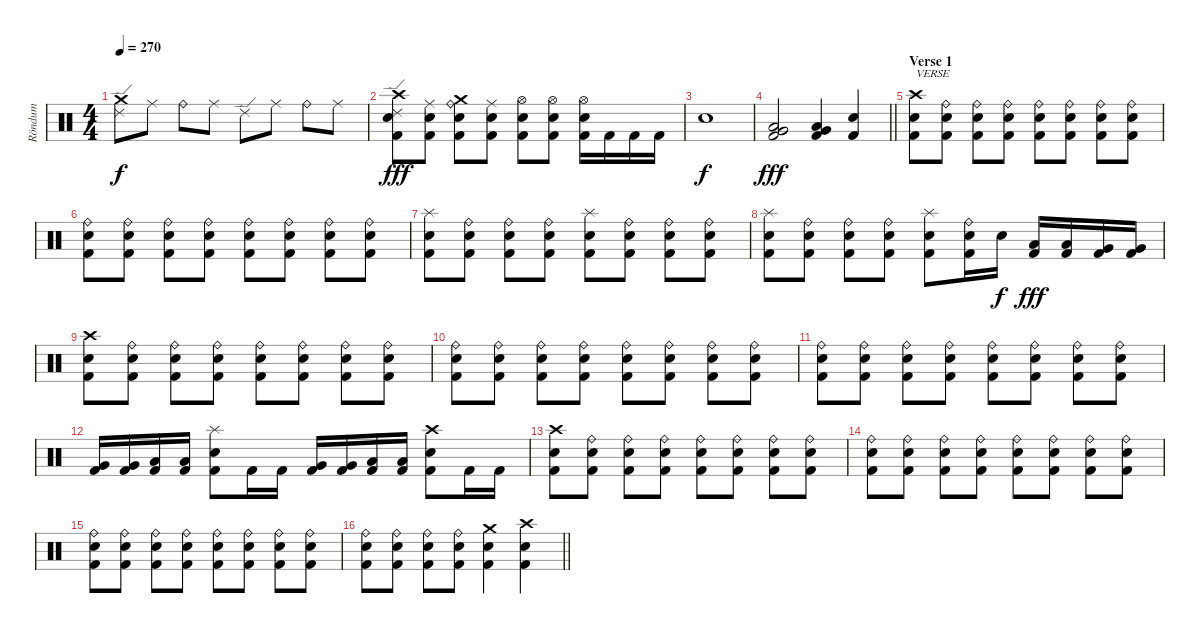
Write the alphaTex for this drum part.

\track ("Röndum" "Röndum") {instrument percussion}
\staff {score}
\articulation defaults
\ts (4 4)
\tempo 270
\clef neutral
\ks c
("Crash medium (hit)" "Ride (edge) 2").8{dy f} "Ride (middle)".8 "Ride (bell)".8 "Ride (middle)".8 "Ride (edge) 2".8 "Ride (middle)".8 "Ride (bell)".8 "Ride (middle)".8 |
("Crash high (hit)" "Ride (edge) 2" "Snare (hit) 2" "Kick (hit) 2").8{dy fff} ("Ride (middle)" "Snare (hit) 2" "Kick (hit) 2").8 ("Crash medium (hit)" "Ride (bell)" "Snare (hit) 2" "Kick (hit) 2").8 ("Ride (middle)" "Snare (hit) 2" "Kick (hit) 2").8 ("Hi-Hat (open)" "Snare (hit) 2" "Kick (hit) 2").8 ("Hi-Hat (open)" "Snare (hit) 2" "Kick (hit) 2").8 ("Hi-Hat (open)" "Snare (hit) 2" "Kick (hit) 2").16 "Kick (hit) 2".16 "Kick (hit) 2".16 "Kick (hit) 2".16 |
"Snare (hit) 2".1{dy f} |
\barLineRight lightlight
("Low Floor Tom (hit)" "Very Low Tom (hit)" "Kick (hit) 2").2{dy fff} ("Very Low Tom (hit)" "Low Tom (hit)" "Kick (hit) 2").4 ("Snare (hit) 2" "Kick (hit) 2").4 |
\section ("" "Verse 1")
("Crash high (hit)" "Snare (hit) 2" "Kick (hit) 2").8{txt "VERSE"} ("Ride (bell)" "Snare (hit) 2" "Kick (hit) 2").8 ("Ride (bell)" "Snare (hit) 2" "Kick (hit) 2").8 ("Ride (bell)" "Snare (hit) 2" "Kick (hit) 2").8 ("Ride (bell)" "Snare (hit) 2" "Kick (hit) 2").8 ("Ride (bell)" "Snare (hit) 2" "Kick (hit) 2").8 ("Ride (bell)" "Snare (hit) 2" "Kick (hit) 2").8 ("Ride (bell)" "Snare (hit) 2" "Kick (hit) 2").8 |
("Ride (bell)" "Snare (hit) 2" "Kick (hit) 2").8 ("Ride (bell)" "Snare (hit) 2" "Kick (hit) 2").8 ("Ride (bell)" "Snare (hit) 2" "Kick (hit) 2").8 ("Ride (bell)" "Snare (hit) 2" "Kick (hit) 2").8 ("Ride (bell)" "Snare (hit) 2" "Kick (hit) 2").8 ("Ride (bell)" "Snare (hit) 2" "Kick (hit) 2").8 ("Ride (bell)" "Snare (hit) 2" "Kick (hit) 2").8 ("Ride (bell)" "Snare (hit) 2" "Kick (hit) 2").8 |
("Splash (hit)" "Snare (hit) 2" "Kick (hit) 2").8 ("Ride (bell)" "Snare (hit) 2" "Kick (hit) 2").8 ("Ride (bell)" "Snare (hit) 2" "Kick (hit) 2").8 ("Ride (bell)" "Snare (hit) 2" "Kick (hit) 2").8 ("Splash (hit)" "Snare (hit) 2" "Kick (hit) 2").8 ("Ride (bell)" "Snare (hit) 2" "Kick (hit) 2").8 ("Ride (bell)" "Snare (hit) 2" "Kick (hit) 2").8 ("Ride (bell)" "Snare (hit) 2" "Kick (hit) 2").8 |
("Splash (hit)" "Snare (hit) 2" "Kick (hit) 2").8 ("Ride (bell)" "Snare (hit) 2" "Kick (hit) 2").8 ("Ride (bell)" "Snare (hit) 2" "Kick (hit) 2").8 ("Ride (bell)" "Snare (hit) 2" "Kick (hit) 2").8 ("Splash (hit)" "Snare (hit) 2" "Kick (hit) 2").8 ("Ride (bell)" "Snare (hit) 2" "Kick (hit) 2").16 "Snare (hit) 2".16{dy f} ("Low Tom (hit)" "Kick (hit) 2").16{dy fff} ("Low Tom (hit)" "Kick (hit) 2").16 ("Very Low Tom (hit)" "Kick (hit) 2").16 ("Very Low Tom (hit)" "Kick (hit) 2").16 |
("Crash high (hit)" "Snare (hit) 2" "Kick (hit) 2").8 ("Ride (bell)" "Snare (hit) 2" "Kick (hit) 2").8 ("Ride (bell)" "Snare (hit) 2" "Kick (hit) 2").8 ("Ride (bell)" "Snare (hit) 2" "Kick (hit) 2").8 ("Ride (bell)" "Snare (hit) 2" "Kick (hit) 2").8 ("Ride (bell)" "Snare (hit) 2" "Kick (hit) 2").8 ("Ride (bell)" "Snare (hit) 2" "Kick (hit) 2").8 ("Ride (bell)" "Snare (hit) 2" "Kick (hit) 2").8 |
("Ride (bell)" "Snare (hit) 2" "Kick (hit) 2").8 ("Ride (bell)" "Snare (hit) 2" "Kick (hit) 2").8 ("Ride (bell)" "Snare (hit) 2" "Kick (hit) 2").8 ("Ride (bell)" "Snare (hit) 2" "Kick (hit) 2").8 ("Ride (bell)" "Snare (hit) 2" "Kick (hit) 2").8 ("Ride (bell)" "Snare (hit) 2" "Kick (hit) 2").8 ("Ride (bell)" "Snare (hit) 2" "Kick (hit) 2").8 ("Ride (bell)" "Snare (hit) 2" "Kick (hit) 2").8 |
("Ride (bell)" "Snare (hit) 2" "Kick (hit) 2").8 ("Ride (bell)" "Snare (hit) 2" "Kick (hit) 2").8 ("Ride (bell)" "Snare (hit) 2" "Kick (hit) 2").8 ("Ride (bell)" "Snare (hit) 2" "Kick (hit) 2").8 ("Ride (bell)" "Snare (hit) 2" "Kick (hit) 2").8 ("Ride (bell)" "Snare (hit) 2" "Kick (hit) 2").8 ("Ride (bell)" "Snare (hit) 2" "Kick (hit) 2").8 ("Ride (bell)" "Snare (hit) 2" "Kick (hit) 2").8 |
("Very Low Tom (hit)" "Kick (hit) 2").16 ("Very Low Tom (hit)" "Kick (hit) 2").16 ("Low Floor Tom (hit)" "Kick (hit) 2").16 ("Low Floor Tom (hit)" "Kick (hit) 2").16 ("Splash (hit)" "Snare (hit) 2" "Kick (hit) 2").8 "Kick (hit) 2".16 "Kick (hit) 2".16 ("Very Low Tom (hit)" "Kick (hit) 2").16 ("Very Low Tom (hit)" "Kick (hit) 2").16 ("Low Floor Tom (hit)" "Kick (hit) 2").16 ("Low Floor Tom (hit)" "Kick (hit) 2").16 ("Crash high (hit)" "Snare (hit) 2" "Kick (hit) 2").8 "Kick (hit) 2".16 "Kick (hit) 2".16 |
("Crash high (hit)" "Snare (hit) 2" "Kick (hit) 2").8 ("Ride (bell)" "Snare (hit) 2" "Kick (hit) 2").8 ("Ride (bell)" "Snare (hit) 2" "Kick (hit) 2").8 ("Ride (bell)" "Snare (hit) 2" "Kick (hit) 2").8 ("Ride (bell)" "Snare (hit) 2" "Kick (hit) 2").8 ("Ride (bell)" "Snare (hit) 2" "Kick (hit) 2").8 ("Ride (bell)" "Snare (hit) 2" "Kick (hit) 2").8 ("Ride (bell)" "Snare (hit) 2" "Kick (hit) 2").8 |
("Ride (bell)" "Snare (hit) 2" "Kick (hit) 2").8 ("Ride (bell)" "Snare (hit) 2" "Kick (hit) 2").8 ("Ride (bell)" "Snare (hit) 2" "Kick (hit) 2").8 ("Ride (bell)" "Snare (hit) 2" "Kick (hit) 2").8 ("Ride (bell)" "Snare (hit) 2" "Kick (hit) 2").8 ("Ride (bell)" "Snare (hit) 2" "Kick (hit) 2").8 ("Ride (bell)" "Snare (hit) 2" "Kick (hit) 2").8 ("Ride (bell)" "Snare (hit) 2" "Kick (hit) 2").8 |
("Ride (bell)" "Snare (hit) 2" "Kick (hit) 2").8 ("Ride (bell)" "Snare (hit) 2" "Kick (hit) 2").8 ("Ride (bell)" "Snare (hit) 2" "Kick (hit) 2").8 ("Ride (bell)" "Snare (hit) 2" "Kick (hit) 2").8 ("Ride (bell)" "Snare (hit) 2" "Kick (hit) 2").8 ("Ride (bell)" "Snare (hit) 2" "Kick (hit) 2").8 ("Ride (bell)" "Snare (hit) 2" "Kick (hit) 2").8 ("Ride (bell)" "Snare (hit) 2" "Kick (hit) 2").8 |
\barLineRight lightlight
("Ride (bell)" "Snare (hit) 2" "Kick (hit) 2").8 ("Ride (bell)" "Snare (hit) 2" "Kick (hit) 2").8 ("Ride (bell)" "Snare (hit) 2" "Kick (hit) 2").8 ("Ride (bell)" "Snare (hit) 2" "Kick (hit) 2").8 ("Crash medium (hit)" "Snare (hit) 2" "Kick (hit) 2").4 ("Crash high (hit)" "Snare (hit) 2" "Kick (hit) 2").4
